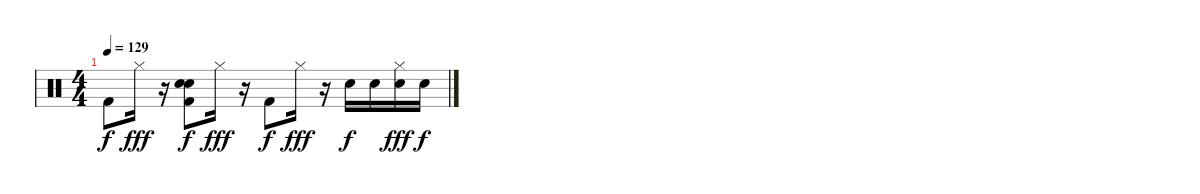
\track "" {instrument percussion}
\staff {score}
\articulation defaults
\ts (4 4)
\tempo 129
\clef neutral
\ks c "Kick (hit) 2".8{dy f} "Hi-Hat (closed)".16{dy fff}
r.16 ("Snare (hit) 2" "Hand Clap (hit)" "Kick (hit) 2").8{dy f} "Hi-Hat (closed)".16{dy fff} r.16 "Kick (hit) 2".8{dy f} "Hi-Hat (closed)".16{dy fff} r.16 "Snare (hit) 2".16{dy f} "Snare (hit) 2".16 ("Snare (hit) 2" "Hi-Hat (closed)").16{dy fff} "Snare (hit) 2".16{dy f}
